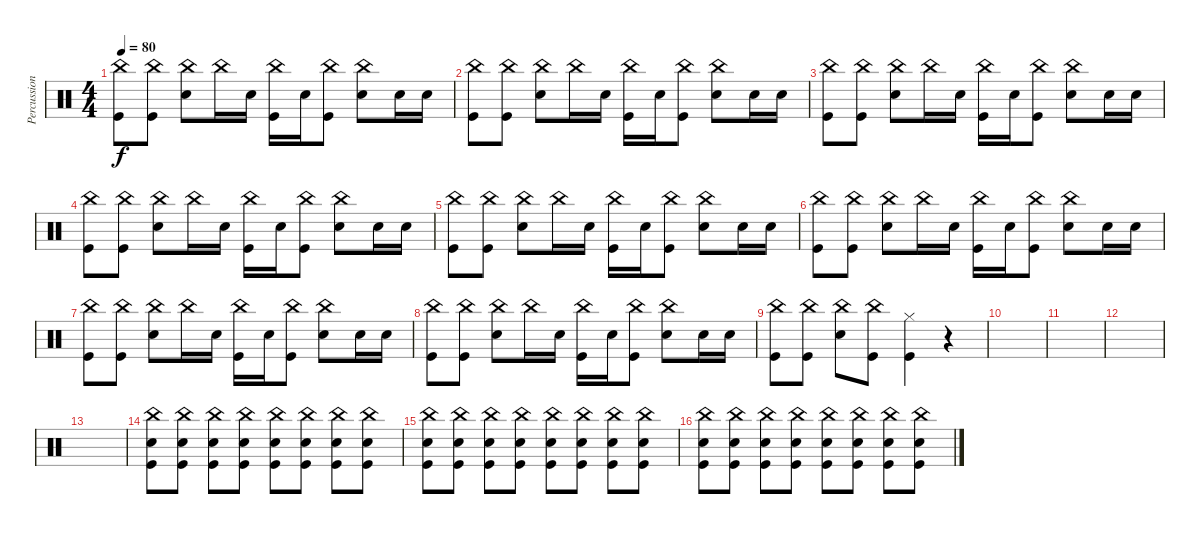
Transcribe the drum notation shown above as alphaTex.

\track ("Percussions" "Percussion") {instrument percussion}
\staff {score}
\articulation defaults
\ts (4 4)
\tempo 80
\clef neutral
\ks c
("China (hit)" "Kick (hit)").8{dy f} ("China (hit)" "Kick (hit)").8 ("China (hit)" "Snare (hit) 2").8 "China (hit)".16 "Snare (hit) 2".16 ("China (hit)" "Kick (hit)").16 "Snare (hit) 2".16 ("China (hit)" "Kick (hit)").8 ("China (hit)" "Snare (hit) 2").8 "Snare (hit) 2".16 "Snare (hit) 2".16 |
("China (hit)" "Kick (hit)").8 ("China (hit)" "Kick (hit)").8 ("China (hit)" "Snare (hit) 2").8 "China (hit)".16 "Snare (hit) 2".16 ("China (hit)" "Kick (hit)").16 "Snare (hit) 2".16 ("China (hit)" "Kick (hit)").8 ("China (hit)" "Snare (hit) 2").8 "Snare (hit) 2".16 "Snare (hit) 2".16 |
("China (hit)" "Kick (hit)").8 ("China (hit)" "Kick (hit)").8 ("China (hit)" "Snare (hit) 2").8 "China (hit)".16 "Snare (hit) 2".16 ("China (hit)" "Kick (hit)").16 "Snare (hit) 2".16 ("China (hit)" "Kick (hit)").8 ("China (hit)" "Snare (hit) 2").8 "Snare (hit) 2".16 "Snare (hit) 2".16 |
("China (hit)" "Kick (hit)").8 ("China (hit)" "Kick (hit)").8 ("China (hit)" "Snare (hit) 2").8 "China (hit)".16 "Snare (hit) 2".16 ("China (hit)" "Kick (hit)").16 "Snare (hit) 2".16 ("China (hit)" "Kick (hit)").8 ("China (hit)" "Snare (hit) 2").8 "Snare (hit) 2".16 "Snare (hit) 2".16 |
("China (hit)" "Kick (hit)").8 ("China (hit)" "Kick (hit)").8 ("China (hit)" "Snare (hit) 2").8 "China (hit)".16 "Snare (hit) 2".16 ("China (hit)" "Kick (hit)").16 "Snare (hit) 2".16 ("China (hit)" "Kick (hit)").8 ("China (hit)" "Snare (hit) 2").8 "Snare (hit) 2".16 "Snare (hit) 2".16 |
("China (hit)" "Kick (hit)").8 ("China (hit)" "Kick (hit)").8 ("China (hit)" "Snare (hit) 2").8 "China (hit)".16 "Snare (hit) 2".16 ("China (hit)" "Kick (hit)").16 "Snare (hit) 2".16 ("China (hit)" "Kick (hit)").8 ("China (hit)" "Snare (hit) 2").8 "Snare (hit) 2".16 "Snare (hit) 2".16 |
("China (hit)" "Kick (hit)").8 ("China (hit)" "Kick (hit)").8 ("China (hit)" "Snare (hit) 2").8 "China (hit)".16 "Snare (hit) 2".16 ("China (hit)" "Kick (hit)").16 "Snare (hit) 2".16 ("China (hit)" "Kick (hit)").8 ("China (hit)" "Snare (hit) 2").8 "Snare (hit) 2".16 "Snare (hit) 2".16 |
("China (hit)" "Kick (hit)").8 ("China (hit)" "Kick (hit)").8 ("China (hit)" "Snare (hit) 2").8 "China (hit)".16 "Snare (hit) 2".16 ("China (hit)" "Kick (hit)").16 "Snare (hit) 2".16 ("China (hit)" "Kick (hit)").8 ("China (hit)" "Snare (hit) 2").8 "Snare (hit) 2".16 "Snare (hit) 2".16 |
("China (hit)" "Kick (hit)").8 ("China (hit)" "Kick (hit)").8 ("China (hit)" "Snare (hit) 2").8 ("China (hit)" "Kick (hit)").8 ("Hi-Hat (closed)" "Kick (hit)").4 r.4 |
|
|
|
|
("China (hit)" "Snare (hit) 2" "Kick (hit)").8 ("China (hit)" "Snare (hit) 2" "Kick (hit)").8 ("China (hit)" "Snare (hit) 2" "Kick (hit)").8 ("China (hit)" "Snare (hit) 2" "Kick (hit)").8 ("China (hit)" "Snare (hit) 2" "Kick (hit)").8 ("China (hit)" "Snare (hit) 2" "Kick (hit)").8 ("China (hit)" "Snare (hit) 2" "Kick (hit)").8 ("China (hit)" "Snare (hit) 2" "Kick (hit)").8 |
("China (hit)" "Snare (hit) 2" "Kick (hit)").8 ("China (hit)" "Snare (hit) 2" "Kick (hit)").8 ("China (hit)" "Snare (hit) 2" "Kick (hit)").8 ("China (hit)" "Snare (hit) 2" "Kick (hit)").8 ("China (hit)" "Snare (hit) 2" "Kick (hit)").8 ("China (hit)" "Snare (hit) 2" "Kick (hit)").8 ("China (hit)" "Snare (hit) 2" "Kick (hit)").8 ("China (hit)" "Snare (hit) 2" "Kick (hit)").8 |
("China (hit)" "Snare (hit) 2" "Kick (hit)").8 ("China (hit)" "Snare (hit) 2" "Kick (hit)").8 ("China (hit)" "Snare (hit) 2" "Kick (hit)").8 ("China (hit)" "Snare (hit) 2" "Kick (hit)").8 ("China (hit)" "Snare (hit) 2" "Kick (hit)").8 ("China (hit)" "Snare (hit) 2" "Kick (hit)").8 ("China (hit)" "Snare (hit) 2" "Kick (hit)").8 ("China (hit)" "Snare (hit) 2" "Kick (hit)").8
